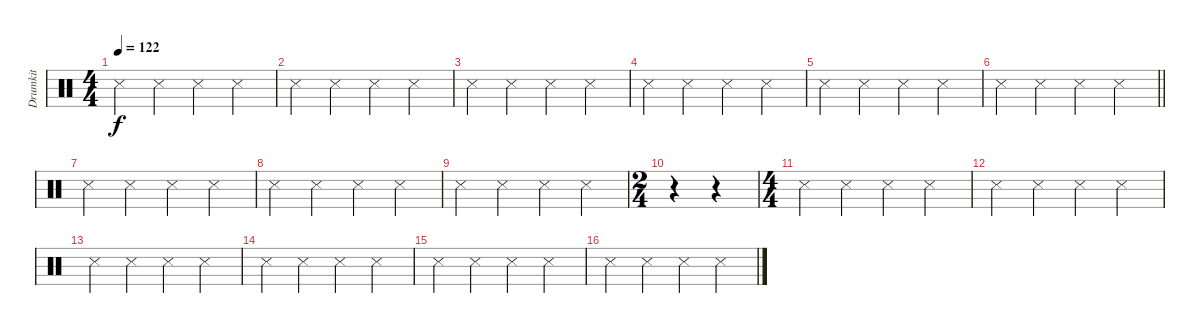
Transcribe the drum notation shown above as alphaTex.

\track ("Drumkit" "Drumkit") {mute instrument percussion}
\staff {score}
\articulation defaults
\ts (4 4)
\tempo 122
\clef neutral
\ks c "Snare (side stick) 3".4{dy f} "Snare (side stick) 3".4 "Snare (side stick) 3".4 "Snare (side stick) 3".4
|
"Snare (side stick) 3".4 "Snare (side stick) 3".4 "Snare (side stick) 3".4 "Snare (side stick) 3".4 |
"Snare (side stick) 3".4 "Snare (side stick) 3".4 "Snare (side stick) 3".4 "Snare (side stick) 3".4 |
"Snare (side stick) 3".4 "Snare (side stick) 3".4 "Snare (side stick) 3".4 "Snare (side stick) 3".4 |
"Snare (side stick) 3".4 "Snare (side stick) 3".4 "Snare (side stick) 3".4 "Snare (side stick) 3".4 |
\barLineRight lightlight "Snare (side stick) 3".4 "Snare (side stick) 3".4 "Snare (side stick) 3".4 "Snare (side stick) 3".4
|
"Snare (side stick) 3".4 "Snare (side stick) 3".4 "Snare (side stick) 3".4 "Snare (side stick) 3".4 |
"Snare (side stick) 3".4 "Snare (side stick) 3".4 "Snare (side stick) 3".4 "Snare (side stick) 3".4 |
"Snare (side stick) 3".4 "Snare (side stick) 3".4 "Snare (side stick) 3".4 "Snare (side stick) 3".4 |
\ts (2 4)
r.4 r.4 |
\ts (4 4)
"Snare (side stick) 3".4 "Snare (side stick) 3".4 "Snare (side stick) 3".4 "Snare (side stick) 3".4 |
"Snare (side stick) 3".4 "Snare (side stick) 3".4 "Snare (side stick) 3".4 "Snare (side stick) 3".4 |
"Snare (side stick) 3".4 "Snare (side stick) 3".4 "Snare (side stick) 3".4 "Snare (side stick) 3".4 |
"Snare (side stick) 3".4 "Snare (side stick) 3".4 "Snare (side stick) 3".4 "Snare (side stick) 3".4 |
"Snare (side stick) 3".4 "Snare (side stick) 3".4 "Snare (side stick) 3".4 "Snare (side stick) 3".4 |
"Snare (side stick) 3".4 "Snare (side stick) 3".4 "Snare (side stick) 3".4 "Snare (side stick) 3".4
